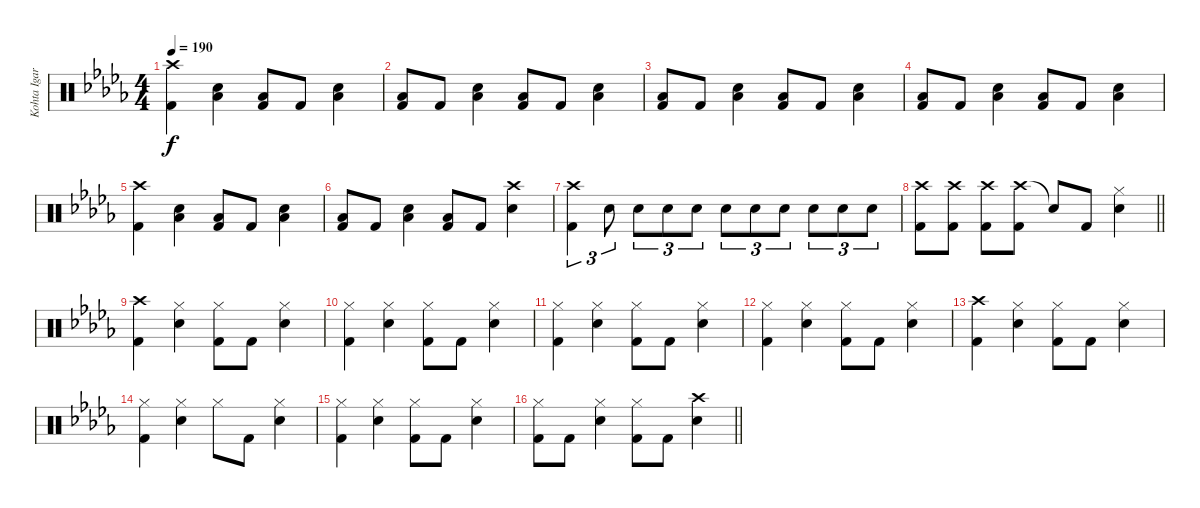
\track ("Kohta Igarashi" "Kohta Igar") {instrument percussion}
\staff {score}
\articulation defaults
\ts (4 4)
\tempo 190
\clef neutral
\ks db
("Crash high (hit)" "Kick (hit) 2").4{dy f} ("Electric Snare (hit)" "Low Floor Tom (hit)").4 ("Low Floor Tom (hit)" "Kick (hit) 2").8 "Kick (hit) 2".8 ("Electric Snare (hit)" "Low Floor Tom (hit)").4 |
("Low Floor Tom (hit)" "Kick (hit) 2").8 "Kick (hit) 2".8 ("Electric Snare (hit)" "Low Floor Tom (hit)").4 ("Low Floor Tom (hit)" "Kick (hit) 2").8 "Kick (hit) 2".8 ("Electric Snare (hit)" "Low Floor Tom (hit)").4 |
("Low Floor Tom (hit)" "Kick (hit) 2").8 "Kick (hit) 2".8 ("Electric Snare (hit)" "Low Floor Tom (hit)").4 ("Low Floor Tom (hit)" "Kick (hit) 2").8 "Kick (hit) 2".8 ("Electric Snare (hit)" "Low Floor Tom (hit)").4 |
("Low Floor Tom (hit)" "Kick (hit) 2").8 "Kick (hit) 2".8 ("Electric Snare (hit)" "Low Floor Tom (hit)").4 ("Low Floor Tom (hit)" "Kick (hit) 2").8 "Kick (hit) 2".8 ("Electric Snare (hit)" "Low Floor Tom (hit)").4 |
("Crash high (hit)" "Kick (hit) 2").4 ("Electric Snare (hit)" "Low Floor Tom (hit)").4 ("Low Floor Tom (hit)" "Kick (hit) 2").8 "Kick (hit) 2".8 ("Electric Snare (hit)" "Low Floor Tom (hit)").4 |
("Low Floor Tom (hit)" "Kick (hit) 2").8 "Kick (hit) 2".8 ("Electric Snare (hit)" "Low Floor Tom (hit)").4 ("Low Floor Tom (hit)" "Kick (hit) 2").8 "Kick (hit) 2".8 ("Crash high (hit)" "Electric Snare (hit)").4 |
("Crash high (hit)" "Kick (hit) 2").4{tu (3 2)} "Electric Snare (hit)".8{tu (3 2)} "Electric Snare (hit)".8{tu (3 2)} "Electric Snare (hit)".8{tu (3 2)} "Electric Snare (hit)".8{tu (3 2)} "Electric Snare (hit)".8{tu (3 2)} "Electric Snare (hit)".8{tu (3 2)} "Electric Snare (hit)".8{tu (3 2)} "Electric Snare (hit)".8{tu (3 2)} "Electric Snare (hit)".8{tu (3 2)} "Electric Snare (hit)".8{tu (3 2)} |
\barLineRight lightlight
("Crash high (hit)" "Kick (hit) 2").8 ("Crash high (hit)" "Kick (hit) 2").8 ("Crash high (hit)" "Kick (hit) 2").8 ("Crash high (hit)" "Kick (hit) 2").8 "Snare (hit)"{t}.8 "Kick (hit) 2".8 ("Hi-Hat (closed)" "Electric Snare (hit)").4 |
("Crash high (hit)" "Kick (hit) 2").4 ("Hi-Hat (closed)" "Electric Snare (hit)").4 ("Hi-Hat (closed)" "Kick (hit) 2").8 "Kick (hit) 2".8 ("Hi-Hat (closed)" "Electric Snare (hit)").4 |
("Hi-Hat (closed)" "Kick (hit) 2").4 ("Hi-Hat (closed)" "Electric Snare (hit)").4 ("Hi-Hat (closed)" "Kick (hit) 2").8 "Kick (hit) 2".8 ("Hi-Hat (closed)" "Electric Snare (hit)").4 |
("Hi-Hat (closed)" "Kick (hit) 2").4 ("Hi-Hat (closed)" "Electric Snare (hit)").4 ("Hi-Hat (closed)" "Kick (hit) 2").8 "Kick (hit) 2".8 ("Hi-Hat (closed)" "Electric Snare (hit)").4 |
("Hi-Hat (closed)" "Kick (hit) 2").4 ("Hi-Hat (closed)" "Electric Snare (hit)").4 ("Hi-Hat (closed)" "Kick (hit) 2").8 "Kick (hit) 2".8 ("Hi-Hat (closed)" "Electric Snare (hit)").4 |
("Crash high (hit)" "Kick (hit) 2").4 ("Hi-Hat (closed)" "Electric Snare (hit)").4 ("Hi-Hat (closed)" "Kick (hit) 2").8 "Kick (hit) 2".8 ("Hi-Hat (closed)" "Electric Snare (hit)").4 |
("Hi-Hat (closed)" "Kick (hit) 2").4 ("Hi-Hat (closed)" "Electric Snare (hit)").4 "Hi-Hat (closed)".8 "Kick (hit) 2".8 ("Hi-Hat (closed)" "Electric Snare (hit)").4 |
("Hi-Hat (closed)" "Kick (hit) 2").4 ("Hi-Hat (closed)" "Electric Snare (hit)").4 ("Hi-Hat (closed)" "Kick (hit) 2").8 "Kick (hit) 2".8 ("Hi-Hat (closed)" "Electric Snare (hit)").4 |
\barLineRight lightlight
("Hi-Hat (closed)" "Kick (hit) 2").8 "Kick (hit) 2".8 ("Hi-Hat (closed)" "Electric Snare (hit)").4 ("Hi-Hat (closed)" "Kick (hit) 2").8 "Kick (hit) 2".8 ("Crash high (hit)" "Electric Snare (hit)").4
